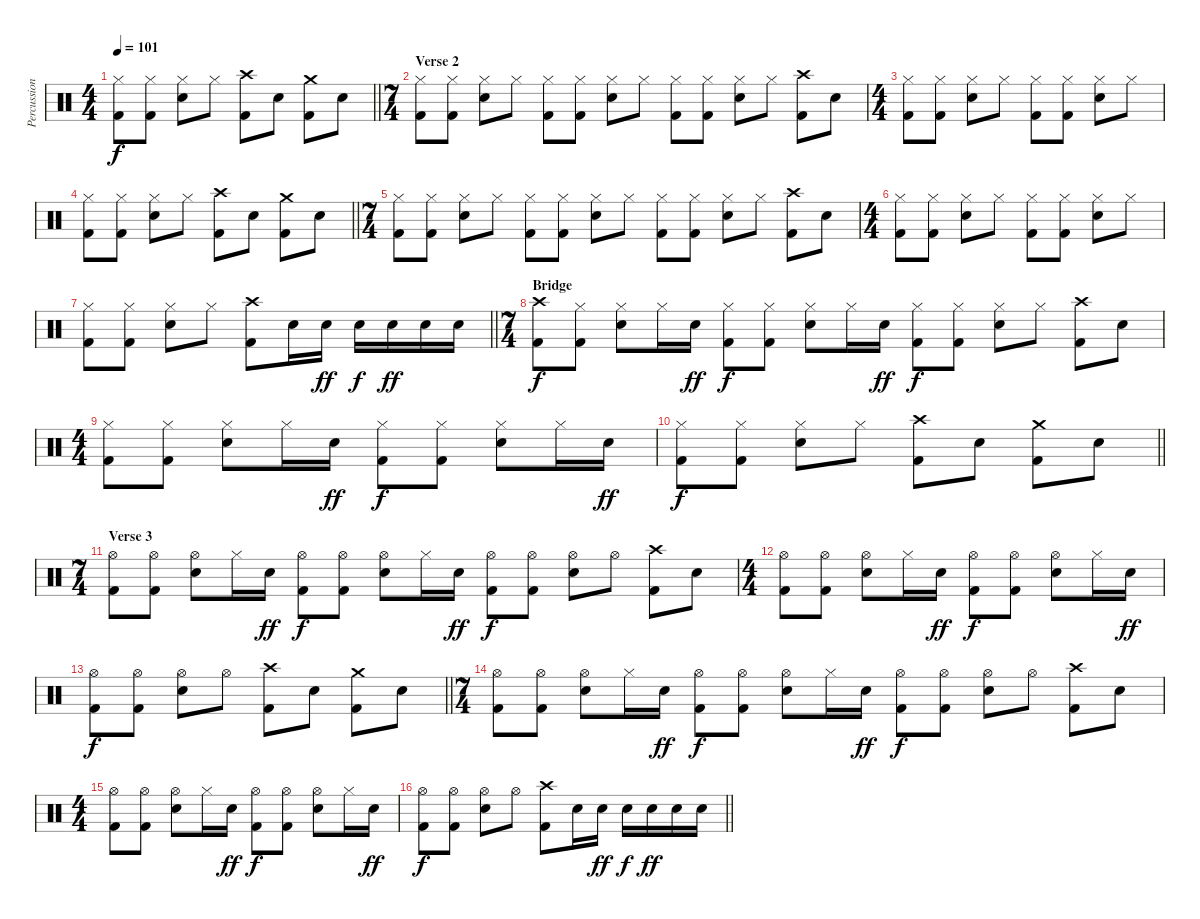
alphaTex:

\track ("Percussion" "Percussion") {instrument percussion}
\staff {score}
\articulation defaults
\ts (4 4)
\tempo 101
\clef neutral
\barLineRight lightlight
\ks c
("Hi-Hat (closed)" "Kick (hit) 2").8{dy f} ("Hi-Hat (closed)" "Kick (hit) 2").8 ("Hi-Hat (closed)" "Electric Snare (hit)").8 "Hi-Hat (closed)".8 ("Crash high (hit)" "Kick (hit) 2").8 "Electric Snare (hit)".8 ("Crash medium (hit)" "Kick (hit) 2").8 "Electric Snare (hit)".8 |
\ts (7 4)
\section ("" "Verse 2")
("Hi-Hat (closed)" "Kick (hit) 2").8 ("Hi-Hat (closed)" "Kick (hit) 2").8 ("Hi-Hat (closed)" "Electric Snare (hit)").8 "Hi-Hat (closed)".8 ("Hi-Hat (closed)" "Kick (hit) 2").8 ("Hi-Hat (closed)" "Kick (hit) 2").8 ("Hi-Hat (closed)" "Electric Snare (hit)").8 "Hi-Hat (closed)".8 ("Hi-Hat (closed)" "Kick (hit) 2").8 ("Hi-Hat (closed)" "Kick (hit) 2").8 ("Hi-Hat (closed)" "Electric Snare (hit)").8 "Hi-Hat (closed)".8 ("Crash high (hit)" "Kick (hit) 2").8 "Electric Snare (hit)".8 |
\ts (4 4)
("Hi-Hat (closed)" "Kick (hit) 2").8 ("Hi-Hat (closed)" "Kick (hit) 2").8 ("Hi-Hat (closed)" "Electric Snare (hit)").8 "Hi-Hat (closed)".8 ("Hi-Hat (closed)" "Kick (hit) 2").8 ("Hi-Hat (closed)" "Kick (hit) 2").8 ("Hi-Hat (closed)" "Electric Snare (hit)").8 "Hi-Hat (closed)".8 |
\barLineRight lightlight
("Hi-Hat (closed)" "Kick (hit) 2").8 ("Hi-Hat (closed)" "Kick (hit) 2").8 ("Hi-Hat (closed)" "Electric Snare (hit)").8 "Hi-Hat (closed)".8 ("Crash high (hit)" "Kick (hit) 2").8 "Electric Snare (hit)".8 ("Crash medium (hit)" "Kick (hit) 2").8 "Electric Snare (hit)".8 |
\ts (7 4)
("Hi-Hat (closed)" "Kick (hit) 2").8 ("Hi-Hat (closed)" "Kick (hit) 2").8 ("Hi-Hat (closed)" "Electric Snare (hit)").8 "Hi-Hat (closed)".8 ("Hi-Hat (closed)" "Kick (hit) 2").8 ("Hi-Hat (closed)" "Kick (hit) 2").8 ("Hi-Hat (closed)" "Electric Snare (hit)").8 "Hi-Hat (closed)".8 ("Hi-Hat (closed)" "Kick (hit) 2").8 ("Hi-Hat (closed)" "Kick (hit) 2").8 ("Hi-Hat (closed)" "Electric Snare (hit)").8 "Hi-Hat (closed)".8 ("Crash high (hit)" "Kick (hit) 2").8 "Electric Snare (hit)".8 |
\ts (4 4)
("Hi-Hat (closed)" "Kick (hit) 2").8 ("Hi-Hat (closed)" "Kick (hit) 2").8 ("Hi-Hat (closed)" "Electric Snare (hit)").8 "Hi-Hat (closed)".8 ("Hi-Hat (closed)" "Kick (hit) 2").8 ("Hi-Hat (closed)" "Kick (hit) 2").8 ("Hi-Hat (closed)" "Electric Snare (hit)").8 "Hi-Hat (closed)".8 |
\barLineRight lightlight
("Hi-Hat (closed)" "Kick (hit) 2").8 ("Hi-Hat (closed)" "Kick (hit) 2").8 ("Hi-Hat (closed)" "Electric Snare (hit)").8 "Hi-Hat (closed)".8 ("Crash high (hit)" "Kick (hit) 2").8 "Electric Snare (hit)".16 "Electric Snare (hit)".16{dy ff} "Electric Snare (hit)".16{dy f} "Electric Snare (hit)".16{dy ff} "Electric Snare (hit)".16 "Electric Snare (hit)".16 |
\ts (7 4)
\section ("" "Bridge")
("Crash high (hit)" "Kick (hit) 2").8{dy f} ("Hi-Hat (closed)" "Kick (hit) 2").8 ("Hi-Hat (closed)" "Electric Snare (hit)").8 "Hi-Hat (closed)".16 "Electric Snare (hit)".16{dy ff} ("Hi-Hat (closed)" "Kick (hit) 2").8{dy f} ("Hi-Hat (closed)" "Kick (hit) 2").8 ("Hi-Hat (closed)" "Electric Snare (hit)").8 "Hi-Hat (closed)".16 "Electric Snare (hit)".16{dy ff} ("Hi-Hat (closed)" "Kick (hit) 2").8{dy f} ("Hi-Hat (closed)" "Kick (hit) 2").8 ("Hi-Hat (closed)" "Electric Snare (hit)").8 "Hi-Hat (closed)".8 ("Crash high (hit)" "Kick (hit) 2").8 "Electric Snare (hit)".8 |
\ts (4 4)
("Hi-Hat (closed)" "Kick (hit) 2").8 ("Hi-Hat (closed)" "Kick (hit) 2").8 ("Hi-Hat (closed)" "Electric Snare (hit)").8 "Hi-Hat (closed)".16 "Electric Snare (hit)".16{dy ff} ("Hi-Hat (closed)" "Kick (hit) 2").8{dy f} ("Hi-Hat (closed)" "Kick (hit) 2").8 ("Hi-Hat (closed)" "Electric Snare (hit)").8 "Hi-Hat (closed)".16 "Electric Snare (hit)".16{dy ff} |
\barLineRight lightlight
("Hi-Hat (closed)" "Kick (hit) 2").8{dy f} ("Hi-Hat (closed)" "Kick (hit) 2").8 ("Hi-Hat (closed)" "Electric Snare (hit)").8 "Hi-Hat (closed)".8 ("Crash high (hit)" "Kick (hit) 2").8 "Electric Snare (hit)".8 ("Crash medium (hit)" "Kick (hit) 2").8 "Electric Snare (hit)".8 |
\ts (7 4)
\section ("" "Verse 3")
("Hi-Hat (open)" "Kick (hit) 2").8 ("Hi-Hat (open)" "Kick (hit) 2").8 ("Hi-Hat (open)" "Electric Snare (hit)").8 "Hi-Hat (closed)".16 "Electric Snare (hit)".16{dy ff} ("Hi-Hat (open)" "Kick (hit) 2").8{dy f} ("Hi-Hat (open)" "Kick (hit) 2").8 ("Hi-Hat (open)" "Electric Snare (hit)").8 "Hi-Hat (closed)".16 "Electric Snare (hit)".16{dy ff} ("Hi-Hat (open)" "Kick (hit) 2").8{dy f} ("Hi-Hat (open)" "Kick (hit) 2").8 ("Hi-Hat (open)" "Electric Snare (hit)").8 "Hi-Hat (open)".8 ("Crash high (hit)" "Kick (hit) 2").8 "Electric Snare (hit)".8 |
\ts (4 4)
("Hi-Hat (open)" "Kick (hit) 2").8 ("Hi-Hat (open)" "Kick (hit) 2").8 ("Hi-Hat (open)" "Electric Snare (hit)").8 "Hi-Hat (closed)".16 "Electric Snare (hit)".16{dy ff} ("Hi-Hat (open)" "Kick (hit) 2").8{dy f} ("Hi-Hat (open)" "Kick (hit) 2").8 ("Hi-Hat (open)" "Electric Snare (hit)").8 "Hi-Hat (closed)".16 "Electric Snare (hit)".16{dy ff} |
\barLineRight lightlight
("Hi-Hat (open)" "Kick (hit) 2").8{dy f} ("Hi-Hat (open)" "Kick (hit) 2").8 ("Hi-Hat (open)" "Electric Snare (hit)").8 "Hi-Hat (open)".8 ("Crash high (hit)" "Kick (hit) 2").8 "Electric Snare (hit)".8 ("Crash medium (hit)" "Kick (hit) 2").8 "Electric Snare (hit)".8 |
\ts (7 4)
("Hi-Hat (open)" "Kick (hit) 2").8 ("Hi-Hat (open)" "Kick (hit) 2").8 ("Hi-Hat (open)" "Electric Snare (hit)").8 "Hi-Hat (closed)".16 "Electric Snare (hit)".16{dy ff} ("Hi-Hat (open)" "Kick (hit) 2").8{dy f} ("Hi-Hat (open)" "Kick (hit) 2").8 ("Hi-Hat (open)" "Electric Snare (hit)").8 "Hi-Hat (closed)".16 "Electric Snare (hit)".16{dy ff} ("Hi-Hat (open)" "Kick (hit) 2").8{dy f} ("Hi-Hat (open)" "Kick (hit) 2").8 ("Hi-Hat (open)" "Electric Snare (hit)").8 "Hi-Hat (open)".8 ("Crash high (hit)" "Kick (hit) 2").8 "Electric Snare (hit)".8 |
\ts (4 4)
("Hi-Hat (open)" "Kick (hit) 2").8 ("Hi-Hat (open)" "Kick (hit) 2").8 ("Hi-Hat (open)" "Electric Snare (hit)").8 "Hi-Hat (closed)".16 "Electric Snare (hit)".16{dy ff} ("Hi-Hat (open)" "Kick (hit) 2").8{dy f} ("Hi-Hat (open)" "Kick (hit) 2").8 ("Hi-Hat (open)" "Electric Snare (hit)").8 "Hi-Hat (closed)".16 "Electric Snare (hit)".16{dy ff} |
\barLineRight lightlight
("Hi-Hat (open)" "Kick (hit) 2").8{dy f} ("Hi-Hat (open)" "Kick (hit) 2").8 ("Hi-Hat (open)" "Electric Snare (hit)").8 "Hi-Hat (open)".8 ("Crash high (hit)" "Kick (hit) 2").8 "Electric Snare (hit)".16 "Electric Snare (hit)".16{dy ff} "Electric Snare (hit)".16{dy f} "Electric Snare (hit)".16{dy ff} "Electric Snare (hit)".16 "Electric Snare (hit)".16
